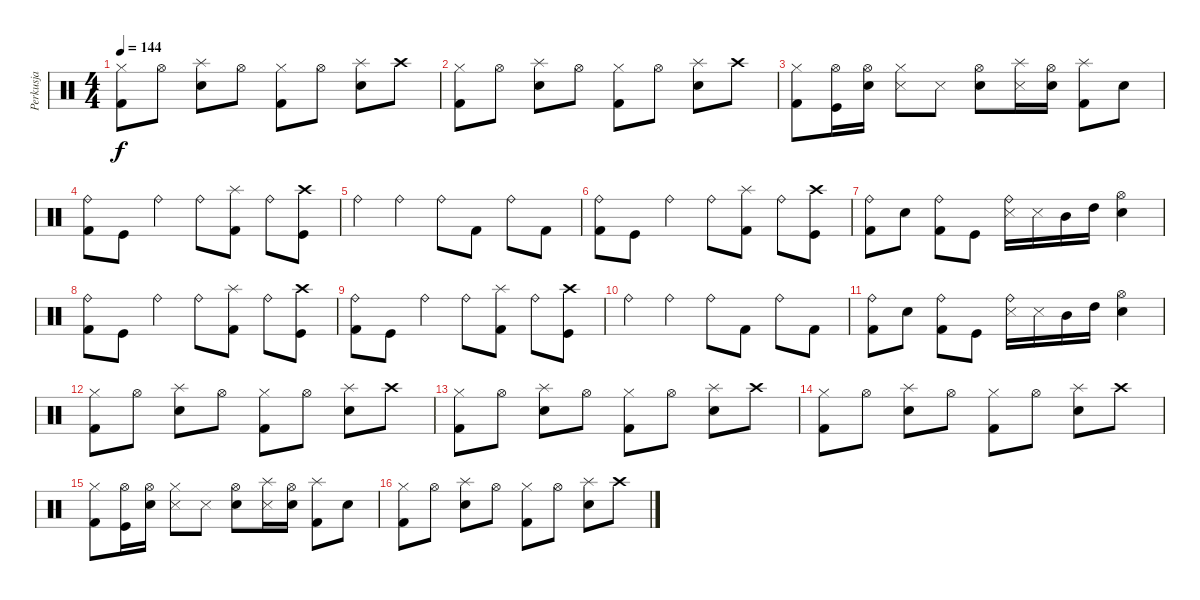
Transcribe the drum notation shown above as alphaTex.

\track ("Perkusja" "Perkusja") {instrument percussion}
\staff {score}
\articulation defaults
\ts (4 4)
\tempo 144
\clef neutral
\ks c
("Kick (hit) 2" "Hi-Hat (closed)").8{dy f} "Hi-Hat (open)".8 ("Snare (hit) 2" "Splash (hit)").8 "Hi-Hat (open)".8 ("Kick (hit) 2" "Hi-Hat (closed)").8 "Hi-Hat (open)".8 ("Snare (hit) 2" "Splash (hit)").8 "Crash high (hit)".8 |
("Kick (hit) 2" "Hi-Hat (closed)").8 "Hi-Hat (open)".8 ("Snare (hit) 2" "Splash (hit)").8 "Hi-Hat (open)".8 ("Kick (hit) 2" "Hi-Hat (closed)").8 "Hi-Hat (open)".8 ("Snare (hit) 2" "Splash (hit)").8 "Crash high (hit)".8 |
("Kick (hit) 2" "Hi-Hat (closed)").8 ("Hi-Hat (open)" "Kick (hit)").16 ("Snare (hit) 2" "Hi-Hat (open)").16 ("Snare (side stick) 3" "Hi-Hat (closed)").8 "Snare (side stick) 3".8 ("Snare (hit) 2" "Hi-Hat (open)").8 ("Snare (side stick) 3" "Splash (hit)").16 ("Snare (hit) 2" "Hi-Hat (open)").16 ("Kick (hit) 2" "Splash (hit)").8 "Snare (hit) 2".8 |
("Ride (bell)" "Kick (hit) 2").8 "Kick (hit)".8 "Ride (bell)".4 "Ride (bell)".8 ("Splash (hit)" "Kick (hit) 2").8 "Ride (bell)".8 ("Crash high (hit)" "Kick (hit)").8 |
"Ride (bell)".4 "Ride (bell)".4 "Ride (bell)".8 "Kick (hit) 2".8 "Ride (bell)".8 "Kick (hit) 2".8 |
("Ride (bell)" "Kick (hit) 2").8 "Kick (hit)".8 "Ride (bell)".4 "Ride (bell)".8 ("Splash (hit)" "Kick (hit) 2").8 "Ride (bell)".8 ("Crash high (hit)" "Kick (hit)").8 |
("Ride (bell)" "Kick (hit) 2").8 "Snare (hit) 2".8 ("Ride (bell)" "Kick (hit) 2").8 "Kick (hit)".8 ("Ride (bell)" "Snare (side stick) 3").16 "Snare (side stick) 3".16 "Mid Tom (hit)".16 "High Tom (hit)".16 ("Hi-Hat (open)" "Snare (hit) 2").4 |
("Ride (bell)" "Kick (hit) 2").8 "Kick (hit)".8 "Ride (bell)".4 "Ride (bell)".8 ("Splash (hit)" "Kick (hit) 2").8 "Ride (bell)".8 ("Crash high (hit)" "Kick (hit)").8 |
("Ride (bell)" "Kick (hit) 2").8 "Kick (hit)".8 "Ride (bell)".4 "Ride (bell)".8 ("Splash (hit)" "Kick (hit) 2").8 "Ride (bell)".8 ("Crash high (hit)" "Kick (hit)").8 |
"Ride (bell)".4 "Ride (bell)".4 "Ride (bell)".8 "Kick (hit) 2".8 "Ride (bell)".8 "Kick (hit) 2".8 |
("Ride (bell)" "Kick (hit) 2").8 "Snare (hit) 2".8 ("Ride (bell)" "Kick (hit) 2").8 "Kick (hit)".8 ("Ride (bell)" "Snare (side stick) 3").16 "Snare (side stick) 3".16 "Mid Tom (hit)".16 "High Tom (hit)".16 ("Hi-Hat (open)" "Snare (hit) 2").4 |
("Kick (hit) 2" "Hi-Hat (closed)").8 "Hi-Hat (open)".8 ("Snare (hit) 2" "Splash (hit)").8 "Hi-Hat (open)".8 ("Kick (hit) 2" "Hi-Hat (closed)").8 "Hi-Hat (open)".8 ("Snare (hit) 2" "Splash (hit)").8 "Crash high (hit)".8 |
("Kick (hit) 2" "Hi-Hat (closed)").8 "Hi-Hat (open)".8 ("Snare (hit) 2" "Splash (hit)").8 "Hi-Hat (open)".8 ("Kick (hit) 2" "Hi-Hat (closed)").8 "Hi-Hat (open)".8 ("Snare (hit) 2" "Splash (hit)").8 "Crash high (hit)".8 |
("Kick (hit) 2" "Hi-Hat (closed)").8 "Hi-Hat (open)".8 ("Snare (hit) 2" "Splash (hit)").8 "Hi-Hat (open)".8 ("Kick (hit) 2" "Hi-Hat (closed)").8 "Hi-Hat (open)".8 ("Snare (hit) 2" "Splash (hit)").8 "Crash high (hit)".8 |
("Kick (hit) 2" "Hi-Hat (closed)").8 ("Hi-Hat (open)" "Kick (hit)").16 ("Snare (hit) 2" "Hi-Hat (open)").16 ("Snare (side stick) 3" "Hi-Hat (closed)").8 "Snare (side stick) 3".8 ("Snare (hit) 2" "Hi-Hat (open)").8 ("Snare (side stick) 3" "Splash (hit)").16 ("Snare (hit) 2" "Hi-Hat (open)").16 ("Kick (hit) 2" "Splash (hit)").8 "Snare (hit) 2".8 |
("Kick (hit) 2" "Hi-Hat (closed)").8 "Hi-Hat (open)".8 ("Snare (hit) 2" "Splash (hit)").8 "Hi-Hat (open)".8 ("Kick (hit) 2" "Hi-Hat (closed)").8 "Hi-Hat (open)".8 ("Snare (hit) 2" "Splash (hit)").8 "Crash high (hit)".8
